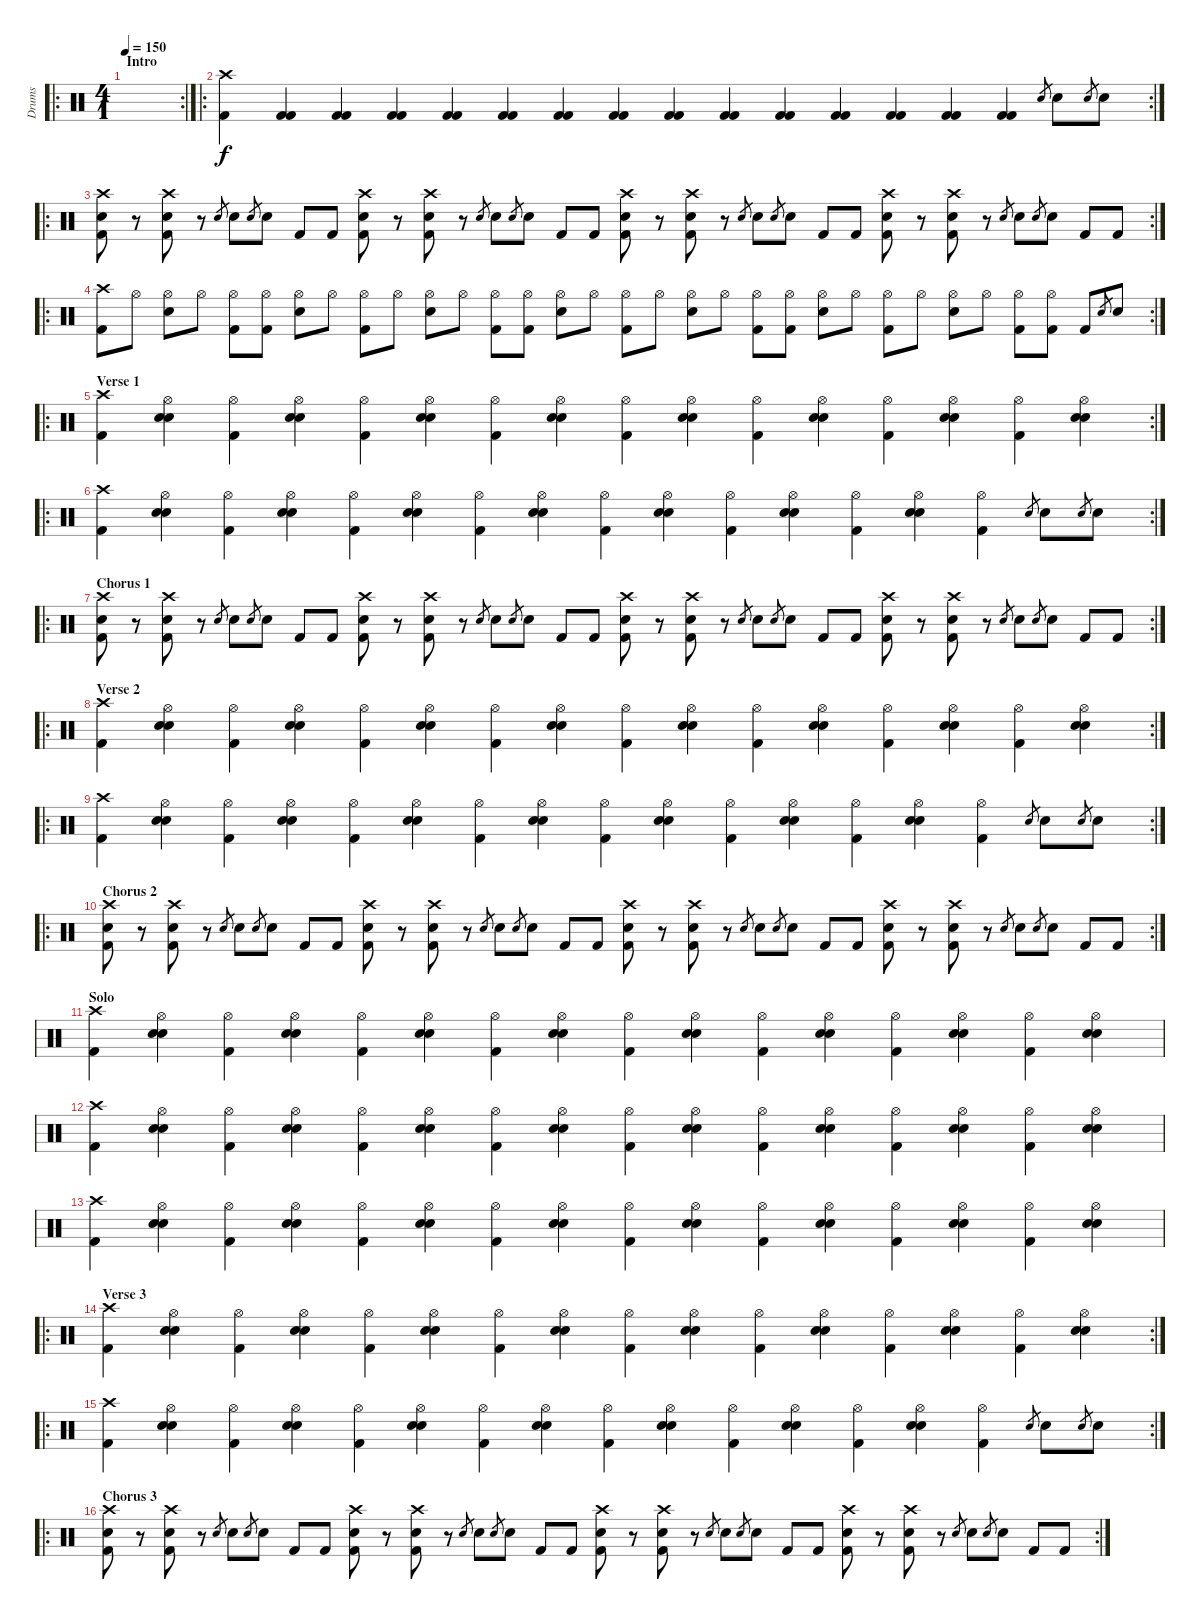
\track ("Drums" "Drums") {instrument percussion}
\staff {score}
\articulation defaults
\ro
\rc 2
\ts (4 1)
\section ("" "Intro")
\tempo 150
\clef neutral
\ks c
|
\ro
\rc 2
("Crash high (hit)" "Kick (hit) 2").4 ("Kick (hit) 2" "Kick (hit) 2").4 ("Kick (hit) 2" "Kick (hit) 2").4 ("Kick (hit) 2" "Kick (hit) 2").4 ("Kick (hit) 2" "Kick (hit) 2").4 ("Kick (hit) 2" "Kick (hit) 2").4 ("Kick (hit) 2" "Kick (hit) 2").4 ("Kick (hit) 2" "Kick (hit) 2").4 ("Kick (hit) 2" "Kick (hit) 2").4 ("Kick (hit) 2" "Kick (hit) 2").4 ("Kick (hit) 2" "Kick (hit) 2").4 ("Kick (hit) 2" "Kick (hit) 2").4 ("Kick (hit) 2" "Kick (hit) 2").4 ("Kick (hit) 2" "Kick (hit) 2").4 ("Kick (hit) 2" "Kick (hit) 2").4 "Electric Snare (hit)".8{gr} "Electric Snare (hit)".8 "Electric Snare (hit)".8{gr} "Electric Snare (hit)".8 |
\ro
\rc 2
("Crash high (hit)" "Electric Snare (hit)" "Kick (hit) 2").8 r.8 ("Crash high (hit)" "Electric Snare (hit)" "Kick (hit) 2").8 r.8 "Electric Snare (hit)".8{gr} "Electric Snare (hit)".8 "Electric Snare (hit)".8{gr} "Electric Snare (hit)".8 "Kick (hit) 2".8 "Kick (hit) 2".8 ("Crash high (hit)" "Electric Snare (hit)" "Kick (hit) 2").8 r.8 ("Crash high (hit)" "Electric Snare (hit)" "Kick (hit) 2").8 r.8 "Electric Snare (hit)".8{gr} "Electric Snare (hit)".8 "Electric Snare (hit)".8{gr} "Electric Snare (hit)".8 "Kick (hit) 2".8 "Kick (hit) 2".8 ("Crash high (hit)" "Electric Snare (hit)" "Kick (hit) 2").8 r.8 ("Crash high (hit)" "Electric Snare (hit)" "Kick (hit) 2").8 r.8 "Electric Snare (hit)".8{gr} "Electric Snare (hit)".8 "Electric Snare (hit)".8{gr} "Electric Snare (hit)".8 "Kick (hit) 2".8 "Kick (hit) 2".8 ("Crash high (hit)" "Electric Snare (hit)" "Kick (hit) 2").8 r.8 ("Crash high (hit)" "Electric Snare (hit)" "Kick (hit) 2").8 r.8 "Electric Snare (hit)".8{gr} "Electric Snare (hit)".8 "Electric Snare (hit)".8{gr} "Electric Snare (hit)".8 "Kick (hit) 2".8 "Kick (hit) 2".8 |
\ro
\rc 2
("Crash high (hit)" "Kick (hit) 2").8 "Hi-Hat (open)".8 ("Hi-Hat (open)" "Electric Snare (hit)").8 "Hi-Hat (open)".8 ("Hi-Hat (open)" "Kick (hit) 2").8 ("Hi-Hat (open)" "Kick (hit) 2").8 ("Hi-Hat (open)" "Electric Snare (hit)").8 "Hi-Hat (open)".8 ("Hi-Hat (open)" "Kick (hit) 2").8 "Hi-Hat (open)".8 ("Hi-Hat (open)" "Electric Snare (hit)").8 "Hi-Hat (open)".8 ("Hi-Hat (open)" "Kick (hit) 2").8 ("Hi-Hat (open)" "Kick (hit) 2").8 ("Hi-Hat (open)" "Electric Snare (hit)").8 "Hi-Hat (open)".8 ("Hi-Hat (open)" "Kick (hit) 2").8 "Hi-Hat (open)".8 ("Hi-Hat (open)" "Electric Snare (hit)").8 "Hi-Hat (open)".8 ("Hi-Hat (open)" "Kick (hit) 2").8 ("Hi-Hat (open)" "Kick (hit) 2").8 ("Hi-Hat (open)" "Electric Snare (hit)").8 "Hi-Hat (open)".8 ("Hi-Hat (open)" "Kick (hit) 2").8 "Hi-Hat (open)".8 ("Hi-Hat (open)" "Electric Snare (hit)").8 "Hi-Hat (open)".8 ("Hi-Hat (open)" "Kick (hit) 2").8 ("Hi-Hat (open)" "Kick (hit) 2").8 "Kick (hit) 2".8 "Electric Snare (hit)".8{gr} "Electric Snare (hit)".8 |
\ro
\rc 2
\section ("" "Verse 1")
("Crash high (hit)" "Kick (hit) 2").4 ("Hi-Hat (open)" "Electric Snare (hit)" "Electric Snare (hit)").4 ("Hi-Hat (open)" "Kick (hit) 2").4 ("Hi-Hat (open)" "Electric Snare (hit)" "Electric Snare (hit)").4 ("Hi-Hat (open)" "Kick (hit) 2").4 ("Hi-Hat (open)" "Electric Snare (hit)" "Electric Snare (hit)").4 ("Hi-Hat (open)" "Kick (hit) 2").4 ("Hi-Hat (open)" "Electric Snare (hit)" "Electric Snare (hit)").4 ("Hi-Hat (open)" "Kick (hit) 2").4 ("Hi-Hat (open)" "Electric Snare (hit)" "Electric Snare (hit)").4 ("Hi-Hat (open)" "Kick (hit) 2").4 ("Hi-Hat (open)" "Electric Snare (hit)" "Electric Snare (hit)").4 ("Hi-Hat (open)" "Kick (hit) 2").4 ("Hi-Hat (open)" "Electric Snare (hit)" "Electric Snare (hit)").4 ("Hi-Hat (open)" "Kick (hit) 2").4 ("Hi-Hat (open)" "Electric Snare (hit)" "Electric Snare (hit)").4 |
\ro
\rc 2
("Crash high (hit)" "Kick (hit) 2").4 ("Hi-Hat (open)" "Electric Snare (hit)" "Electric Snare (hit)").4 ("Hi-Hat (open)" "Kick (hit) 2").4 ("Hi-Hat (open)" "Electric Snare (hit)" "Electric Snare (hit)").4 ("Hi-Hat (open)" "Kick (hit) 2").4 ("Hi-Hat (open)" "Electric Snare (hit)" "Electric Snare (hit)").4 ("Hi-Hat (open)" "Kick (hit) 2").4 ("Hi-Hat (open)" "Electric Snare (hit)" "Electric Snare (hit)").4 ("Hi-Hat (open)" "Kick (hit) 2").4 ("Hi-Hat (open)" "Electric Snare (hit)" "Electric Snare (hit)").4 ("Hi-Hat (open)" "Kick (hit) 2").4 ("Hi-Hat (open)" "Electric Snare (hit)" "Electric Snare (hit)").4 ("Hi-Hat (open)" "Kick (hit) 2").4 ("Hi-Hat (open)" "Electric Snare (hit)" "Electric Snare (hit)").4 ("Hi-Hat (open)" "Kick (hit) 2").4 "Electric Snare (hit)".8{gr} "Electric Snare (hit)".8 "Electric Snare (hit)".8{gr} "Electric Snare (hit)".8 |
\ro
\rc 2
\section ("" "Chorus 1")
("Crash high (hit)" "Electric Snare (hit)" "Kick (hit) 2").8 r.8 ("Crash high (hit)" "Electric Snare (hit)" "Kick (hit) 2").8 r.8 "Electric Snare (hit)".8{gr} "Electric Snare (hit)".8 "Electric Snare (hit)".8{gr} "Electric Snare (hit)".8 "Kick (hit) 2".8 "Kick (hit) 2".8 ("Crash high (hit)" "Electric Snare (hit)" "Kick (hit) 2").8 r.8 ("Crash high (hit)" "Electric Snare (hit)" "Kick (hit) 2").8 r.8 "Electric Snare (hit)".8{gr} "Electric Snare (hit)".8 "Electric Snare (hit)".8{gr} "Electric Snare (hit)".8 "Kick (hit) 2".8 "Kick (hit) 2".8 ("Crash high (hit)" "Electric Snare (hit)" "Kick (hit) 2").8 r.8 ("Crash high (hit)" "Electric Snare (hit)" "Kick (hit) 2").8 r.8 "Electric Snare (hit)".8{gr} "Electric Snare (hit)".8 "Electric Snare (hit)".8{gr} "Electric Snare (hit)".8 "Kick (hit) 2".8 "Kick (hit) 2".8 ("Crash high (hit)" "Electric Snare (hit)" "Kick (hit) 2").8 r.8 ("Crash high (hit)" "Electric Snare (hit)" "Kick (hit) 2").8 r.8 "Electric Snare (hit)".8{gr} "Electric Snare (hit)".8 "Electric Snare (hit)".8{gr} "Electric Snare (hit)".8 "Kick (hit) 2".8 "Kick (hit) 2".8 |
\ro
\rc 2
\section ("" "Verse 2")
("Crash high (hit)" "Kick (hit) 2").4 ("Hi-Hat (open)" "Electric Snare (hit)" "Electric Snare (hit)").4 ("Hi-Hat (open)" "Kick (hit) 2").4 ("Hi-Hat (open)" "Electric Snare (hit)" "Electric Snare (hit)").4 ("Hi-Hat (open)" "Kick (hit) 2").4 ("Hi-Hat (open)" "Electric Snare (hit)" "Electric Snare (hit)").4 ("Hi-Hat (open)" "Kick (hit) 2").4 ("Hi-Hat (open)" "Electric Snare (hit)" "Electric Snare (hit)").4 ("Hi-Hat (open)" "Kick (hit) 2").4 ("Hi-Hat (open)" "Electric Snare (hit)" "Electric Snare (hit)").4 ("Hi-Hat (open)" "Kick (hit) 2").4 ("Hi-Hat (open)" "Electric Snare (hit)" "Electric Snare (hit)").4 ("Hi-Hat (open)" "Kick (hit) 2").4 ("Hi-Hat (open)" "Electric Snare (hit)" "Electric Snare (hit)").4 ("Hi-Hat (open)" "Kick (hit) 2").4 ("Hi-Hat (open)" "Electric Snare (hit)" "Electric Snare (hit)").4 |
\ro
\rc 2
("Crash high (hit)" "Kick (hit) 2").4 ("Hi-Hat (open)" "Electric Snare (hit)" "Electric Snare (hit)").4 ("Hi-Hat (open)" "Kick (hit) 2").4 ("Hi-Hat (open)" "Electric Snare (hit)" "Electric Snare (hit)").4 ("Hi-Hat (open)" "Kick (hit) 2").4 ("Hi-Hat (open)" "Electric Snare (hit)" "Electric Snare (hit)").4 ("Hi-Hat (open)" "Kick (hit) 2").4 ("Hi-Hat (open)" "Electric Snare (hit)" "Electric Snare (hit)").4 ("Hi-Hat (open)" "Kick (hit) 2").4 ("Hi-Hat (open)" "Electric Snare (hit)" "Electric Snare (hit)").4 ("Hi-Hat (open)" "Kick (hit) 2").4 ("Hi-Hat (open)" "Electric Snare (hit)" "Electric Snare (hit)").4 ("Hi-Hat (open)" "Kick (hit) 2").4 ("Hi-Hat (open)" "Electric Snare (hit)" "Electric Snare (hit)").4 ("Hi-Hat (open)" "Kick (hit) 2").4 "Electric Snare (hit)".8{gr} "Electric Snare (hit)".8 "Electric Snare (hit)".8{gr} "Electric Snare (hit)".8 |
\ro
\rc 2
\section ("" "Chorus 2")
("Crash high (hit)" "Electric Snare (hit)" "Kick (hit) 2").8 r.8 ("Crash high (hit)" "Electric Snare (hit)" "Kick (hit) 2").8 r.8 "Electric Snare (hit)".8{gr} "Electric Snare (hit)".8 "Electric Snare (hit)".8{gr} "Electric Snare (hit)".8 "Kick (hit) 2".8 "Kick (hit) 2".8 ("Crash high (hit)" "Electric Snare (hit)" "Kick (hit) 2").8 r.8 ("Crash high (hit)" "Electric Snare (hit)" "Kick (hit) 2").8 r.8 "Electric Snare (hit)".8{gr} "Electric Snare (hit)".8 "Electric Snare (hit)".8{gr} "Electric Snare (hit)".8 "Kick (hit) 2".8 "Kick (hit) 2".8 ("Crash high (hit)" "Electric Snare (hit)" "Kick (hit) 2").8 r.8 ("Crash high (hit)" "Electric Snare (hit)" "Kick (hit) 2").8 r.8 "Electric Snare (hit)".8{gr} "Electric Snare (hit)".8 "Electric Snare (hit)".8{gr} "Electric Snare (hit)".8 "Kick (hit) 2".8 "Kick (hit) 2".8 ("Crash high (hit)" "Electric Snare (hit)" "Kick (hit) 2").8 r.8 ("Crash high (hit)" "Electric Snare (hit)" "Kick (hit) 2").8 r.8 "Electric Snare (hit)".8{gr} "Electric Snare (hit)".8 "Electric Snare (hit)".8{gr} "Electric Snare (hit)".8 "Kick (hit) 2".8 "Kick (hit) 2".8 |
\section ("" "Solo")
("Crash high (hit)" "Kick (hit) 2").4 ("Hi-Hat (open)" "Electric Snare (hit)" "Electric Snare (hit)").4 ("Hi-Hat (open)" "Kick (hit) 2").4 ("Hi-Hat (open)" "Electric Snare (hit)" "Electric Snare (hit)").4 ("Hi-Hat (open)" "Kick (hit) 2").4 ("Hi-Hat (open)" "Electric Snare (hit)" "Electric Snare (hit)").4 ("Hi-Hat (open)" "Kick (hit) 2").4 ("Hi-Hat (open)" "Electric Snare (hit)" "Electric Snare (hit)").4 ("Hi-Hat (open)" "Kick (hit) 2").4 ("Hi-Hat (open)" "Electric Snare (hit)" "Electric Snare (hit)").4 ("Hi-Hat (open)" "Kick (hit) 2").4 ("Hi-Hat (open)" "Electric Snare (hit)" "Electric Snare (hit)").4 ("Hi-Hat (open)" "Kick (hit) 2").4 ("Hi-Hat (open)" "Electric Snare (hit)" "Electric Snare (hit)").4 ("Hi-Hat (open)" "Kick (hit) 2").4 ("Hi-Hat (open)" "Electric Snare (hit)" "Electric Snare (hit)").4 |
("Crash high (hit)" "Kick (hit) 2").4 ("Hi-Hat (open)" "Electric Snare (hit)" "Electric Snare (hit)").4 ("Hi-Hat (open)" "Kick (hit) 2").4 ("Hi-Hat (open)" "Electric Snare (hit)" "Electric Snare (hit)").4 ("Hi-Hat (open)" "Kick (hit) 2").4 ("Hi-Hat (open)" "Electric Snare (hit)" "Electric Snare (hit)").4 ("Hi-Hat (open)" "Kick (hit) 2").4 ("Hi-Hat (open)" "Electric Snare (hit)" "Electric Snare (hit)").4 ("Hi-Hat (open)" "Kick (hit) 2").4 ("Hi-Hat (open)" "Electric Snare (hit)" "Electric Snare (hit)").4 ("Hi-Hat (open)" "Kick (hit) 2").4 ("Hi-Hat (open)" "Electric Snare (hit)" "Electric Snare (hit)").4 ("Hi-Hat (open)" "Kick (hit) 2").4 ("Hi-Hat (open)" "Electric Snare (hit)" "Electric Snare (hit)").4 ("Hi-Hat (open)" "Kick (hit) 2").4 ("Hi-Hat (open)" "Electric Snare (hit)" "Electric Snare (hit)").4 |
("Crash high (hit)" "Kick (hit) 2").4 ("Hi-Hat (open)" "Electric Snare (hit)" "Electric Snare (hit)").4 ("Hi-Hat (open)" "Kick (hit) 2").4 ("Hi-Hat (open)" "Electric Snare (hit)" "Electric Snare (hit)").4 ("Hi-Hat (open)" "Kick (hit) 2").4 ("Hi-Hat (open)" "Electric Snare (hit)" "Electric Snare (hit)").4 ("Hi-Hat (open)" "Kick (hit) 2").4 ("Hi-Hat (open)" "Electric Snare (hit)" "Electric Snare (hit)").4 ("Hi-Hat (open)" "Kick (hit) 2").4 ("Hi-Hat (open)" "Electric Snare (hit)" "Electric Snare (hit)").4 ("Hi-Hat (open)" "Kick (hit) 2").4 ("Hi-Hat (open)" "Electric Snare (hit)" "Electric Snare (hit)").4 ("Hi-Hat (open)" "Kick (hit) 2").4 ("Hi-Hat (open)" "Electric Snare (hit)" "Electric Snare (hit)").4 ("Hi-Hat (open)" "Kick (hit) 2").4 ("Hi-Hat (open)" "Electric Snare (hit)" "Electric Snare (hit)").4 |
\ro
\rc 2
\section ("" "Verse 3")
("Crash high (hit)" "Kick (hit) 2").4 ("Hi-Hat (open)" "Electric Snare (hit)" "Electric Snare (hit)").4 ("Hi-Hat (open)" "Kick (hit) 2").4 ("Hi-Hat (open)" "Electric Snare (hit)" "Electric Snare (hit)").4 ("Hi-Hat (open)" "Kick (hit) 2").4 ("Hi-Hat (open)" "Electric Snare (hit)" "Electric Snare (hit)").4 ("Hi-Hat (open)" "Kick (hit) 2").4 ("Hi-Hat (open)" "Electric Snare (hit)" "Electric Snare (hit)").4 ("Hi-Hat (open)" "Kick (hit) 2").4 ("Hi-Hat (open)" "Electric Snare (hit)" "Electric Snare (hit)").4 ("Hi-Hat (open)" "Kick (hit) 2").4 ("Hi-Hat (open)" "Electric Snare (hit)" "Electric Snare (hit)").4 ("Hi-Hat (open)" "Kick (hit) 2").4 ("Hi-Hat (open)" "Electric Snare (hit)" "Electric Snare (hit)").4 ("Hi-Hat (open)" "Kick (hit) 2").4 ("Hi-Hat (open)" "Electric Snare (hit)" "Electric Snare (hit)").4 |
\ro
\rc 2
("Crash high (hit)" "Kick (hit) 2").4 ("Hi-Hat (open)" "Electric Snare (hit)" "Electric Snare (hit)").4 ("Hi-Hat (open)" "Kick (hit) 2").4 ("Hi-Hat (open)" "Electric Snare (hit)" "Electric Snare (hit)").4 ("Hi-Hat (open)" "Kick (hit) 2").4 ("Hi-Hat (open)" "Electric Snare (hit)" "Electric Snare (hit)").4 ("Hi-Hat (open)" "Kick (hit) 2").4 ("Hi-Hat (open)" "Electric Snare (hit)" "Electric Snare (hit)").4 ("Hi-Hat (open)" "Kick (hit) 2").4 ("Hi-Hat (open)" "Electric Snare (hit)" "Electric Snare (hit)").4 ("Hi-Hat (open)" "Kick (hit) 2").4 ("Hi-Hat (open)" "Electric Snare (hit)" "Electric Snare (hit)").4 ("Hi-Hat (open)" "Kick (hit) 2").4 ("Hi-Hat (open)" "Electric Snare (hit)" "Electric Snare (hit)").4 ("Hi-Hat (open)" "Kick (hit) 2").4 "Electric Snare (hit)".8{gr} "Electric Snare (hit)".8 "Electric Snare (hit)".8{gr} "Electric Snare (hit)".8 |
\ro
\rc 2
\section ("" "Chorus 3")
("Crash high (hit)" "Electric Snare (hit)" "Kick (hit) 2").8 r.8 ("Crash high (hit)" "Electric Snare (hit)" "Kick (hit) 2").8 r.8 "Electric Snare (hit)".8{gr} "Electric Snare (hit)".8 "Electric Snare (hit)".8{gr} "Electric Snare (hit)".8 "Kick (hit) 2".8 "Kick (hit) 2".8 ("Crash high (hit)" "Electric Snare (hit)" "Kick (hit) 2").8 r.8 ("Crash high (hit)" "Electric Snare (hit)" "Kick (hit) 2").8 r.8 "Electric Snare (hit)".8{gr} "Electric Snare (hit)".8 "Electric Snare (hit)".8{gr} "Electric Snare (hit)".8 "Kick (hit) 2".8 "Kick (hit) 2".8 ("Crash high (hit)" "Electric Snare (hit)" "Kick (hit) 2").8 r.8 ("Crash high (hit)" "Electric Snare (hit)" "Kick (hit) 2").8 r.8 "Electric Snare (hit)".8{gr} "Electric Snare (hit)".8 "Electric Snare (hit)".8{gr} "Electric Snare (hit)".8 "Kick (hit) 2".8 "Kick (hit) 2".8 ("Crash high (hit)" "Electric Snare (hit)" "Kick (hit) 2").8 r.8 ("Crash high (hit)" "Electric Snare (hit)" "Kick (hit) 2").8 r.8 "Electric Snare (hit)".8{gr} "Electric Snare (hit)".8 "Electric Snare (hit)".8{gr} "Electric Snare (hit)".8 "Kick (hit) 2".8 "Kick (hit) 2".8
